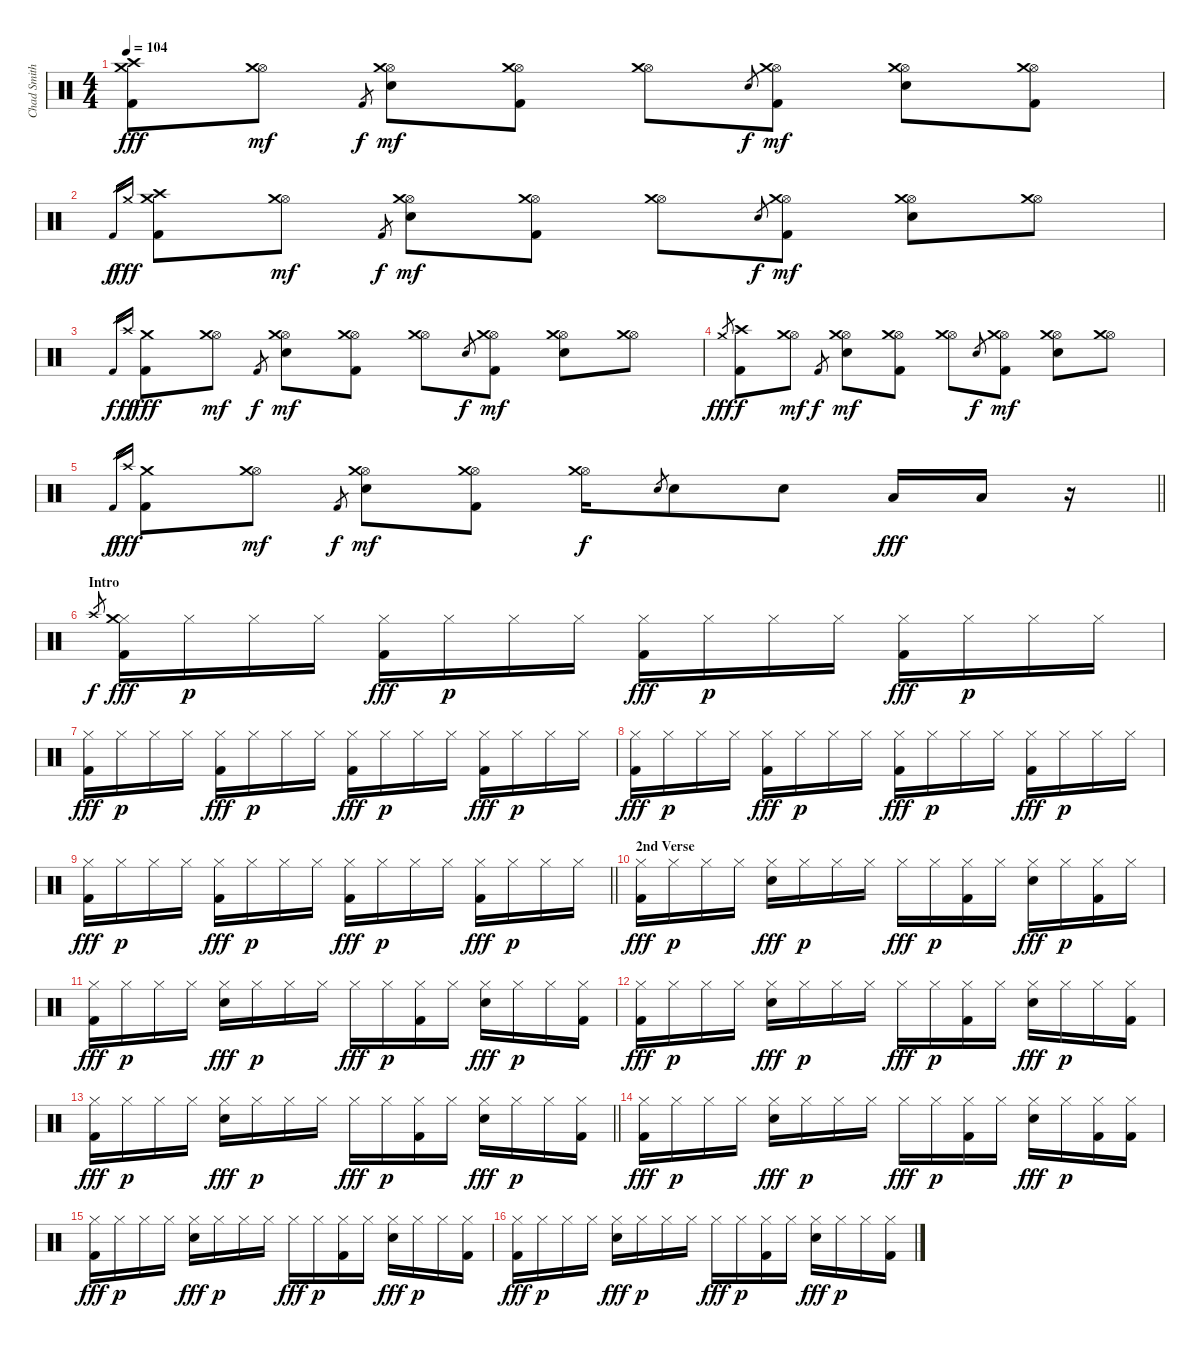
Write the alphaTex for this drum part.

\track ("Chad Smith" "Chad Smith") {instrument percussion}
\staff {score}
\articulation defaults
\ts (4 4)
\tempo 104
\clef neutral
\ks c
("Kick (hit) 2" "Crash medium (hit)" "Crash high (hit)").8{dy fff} ("Hi-Hat (open)" "Crash medium (hit)").8{dy mf} "Kick (hit) 2".8{gr dy f} ("Hi-Hat (open)" "Electric Snare (hit)" "Crash medium (hit)").8{dy mf} ("Hi-Hat (open)" "Kick (hit) 2" "Crash medium (hit)").8 ("Hi-Hat (open)" "Crash medium (hit)").8 "Electric Snare (hit)".8{gr dy f} ("Hi-Hat (open)" "Kick (hit) 2" "Crash medium (hit)").8{dy mf} ("Hi-Hat (open)" "Electric Snare (hit)" "Crash medium (hit)").8 ("Hi-Hat (open)" "Kick (hit) 2" "Crash medium (hit)").8 |
"Kick (hit) 2".16{gr dy f} "Crash medium (hit)".16{gr dy fff} ("Kick (hit) 2" "Crash medium (hit)" "Crash high (hit)").8 ("Hi-Hat (open)" "Crash medium (hit)").8{dy mf} "Kick (hit) 2".8{gr dy f} ("Hi-Hat (open)" "Electric Snare (hit)" "Crash medium (hit)").8{dy mf} ("Hi-Hat (open)" "Kick (hit) 2" "Crash medium (hit)").8 ("Hi-Hat (open)" "Crash medium (hit)").8 "Electric Snare (hit)".8{gr dy f} ("Hi-Hat (open)" "Kick (hit) 2" "Crash medium (hit)").8{dy mf} ("Hi-Hat (open)" "Electric Snare (hit)" "Crash medium (hit)").8 ("Hi-Hat (open)" "Crash medium (hit)").8 |
"Kick (hit) 2".16{gr dy f} "Crash high (hit)".16{gr dy ff} ("Kick (hit) 2" "Crash medium (hit)").8{dy fff} ("Hi-Hat (open)" "Crash medium (hit)").8{dy mf} "Kick (hit) 2".8{gr dy f} ("Hi-Hat (open)" "Electric Snare (hit)" "Crash medium (hit)").8{dy mf} ("Hi-Hat (open)" "Kick (hit) 2" "Crash medium (hit)").8 ("Hi-Hat (open)" "Crash medium (hit)").8 "Electric Snare (hit)".8{gr dy f} ("Hi-Hat (open)" "Kick (hit) 2" "Crash medium (hit)").8{dy mf} ("Hi-Hat (open)" "Electric Snare (hit)" "Crash medium (hit)").8 ("Hi-Hat (open)" "Crash medium (hit)").8 |
"Crash medium (hit)".8{gr dy fff} ("Kick (hit) 2" "Crash high (hit)").8{dy f} ("Hi-Hat (open)" "Crash medium (hit)").8{dy mf} "Kick (hit) 2".8{gr dy f} ("Hi-Hat (open)" "Electric Snare (hit)" "Crash medium (hit)").8{dy mf} ("Hi-Hat (open)" "Kick (hit) 2" "Crash medium (hit)").8 ("Hi-Hat (open)" "Crash medium (hit)").8 "Electric Snare (hit)".8{gr dy f} ("Hi-Hat (open)" "Kick (hit) 2" "Crash medium (hit)").8{dy mf} ("Hi-Hat (open)" "Electric Snare (hit)" "Crash medium (hit)").8 ("Hi-Hat (open)" "Crash medium (hit)").8 |
\barLineRight lightlight "Kick (hit) 2".16{gr dy f} "Crash high (hit)".16{gr dy fff}
("Kick (hit) 2" "Crash medium (hit)").8 ("Hi-Hat (open)" "Crash medium (hit)").8{dy mf} "Kick (hit) 2".8{gr dy f} ("Hi-Hat (open)" "Electric Snare (hit)" "Crash medium (hit)").8{dy mf} ("Hi-Hat (open)" "Kick (hit) 2" "Crash medium (hit)").8 ("Hi-Hat (open)" "Crash medium (hit)").16{dy f} "Electric Snare (hit)".8{gr} "Electric Snare (hit)".8 "Electric Snare (hit)".8 "Low Tom (hit)".16{dy fff} "Low Tom (hit)".16 r.16 |
\section ("" "Intro")
"Crash high (hit)".8{gr dy f} ("Hi-Hat (closed)" "Kick (hit) 2" "Crash medium (hit)").16{dy fff} "Hi-Hat (closed)".16{dy p} "Hi-Hat (closed)".16 "Hi-Hat (closed)".16 ("Hi-Hat (closed)" "Kick (hit) 2").16{dy fff} "Hi-Hat (closed)".16{dy p} "Hi-Hat (closed)".16 "Hi-Hat (closed)".16 ("Hi-Hat (closed)" "Kick (hit) 2").16{dy fff} "Hi-Hat (closed)".16{dy p} "Hi-Hat (closed)".16 "Hi-Hat (closed)".16 ("Hi-Hat (closed)" "Kick (hit) 2").16{dy fff} "Hi-Hat (closed)".16{dy p} "Hi-Hat (closed)".16 "Hi-Hat (closed)".16 |
("Hi-Hat (closed)" "Kick (hit) 2").16{dy fff} "Hi-Hat (closed)".16{dy p} "Hi-Hat (closed)".16 "Hi-Hat (closed)".16 ("Hi-Hat (closed)" "Kick (hit) 2").16{dy fff} "Hi-Hat (closed)".16{dy p} "Hi-Hat (closed)".16 "Hi-Hat (closed)".16 ("Hi-Hat (closed)" "Kick (hit) 2").16{dy fff} "Hi-Hat (closed)".16{dy p} "Hi-Hat (closed)".16 "Hi-Hat (closed)".16 ("Hi-Hat (closed)" "Kick (hit) 2").16{dy fff} "Hi-Hat (closed)".16{dy p} "Hi-Hat (closed)".16 "Hi-Hat (closed)".16 |
("Hi-Hat (closed)" "Kick (hit) 2").16{dy fff} "Hi-Hat (closed)".16{dy p} "Hi-Hat (closed)".16 "Hi-Hat (closed)".16 ("Hi-Hat (closed)" "Kick (hit) 2").16{dy fff} "Hi-Hat (closed)".16{dy p} "Hi-Hat (closed)".16 "Hi-Hat (closed)".16 ("Hi-Hat (closed)" "Kick (hit) 2").16{dy fff} "Hi-Hat (closed)".16{dy p} "Hi-Hat (closed)".16 "Hi-Hat (closed)".16 ("Hi-Hat (closed)" "Kick (hit) 2").16{dy fff} "Hi-Hat (closed)".16{dy p} "Hi-Hat (closed)".16 "Hi-Hat (closed)".16 |
\barLineRight lightlight
("Hi-Hat (closed)" "Kick (hit) 2").16{dy fff} "Hi-Hat (closed)".16{dy p} "Hi-Hat (closed)".16 "Hi-Hat (closed)".16 ("Hi-Hat (closed)" "Kick (hit) 2").16{dy fff} "Hi-Hat (closed)".16{dy p} "Hi-Hat (closed)".16 "Hi-Hat (closed)".16 ("Hi-Hat (closed)" "Kick (hit) 2").16{dy fff} "Hi-Hat (closed)".16{dy p} "Hi-Hat (closed)".16 "Hi-Hat (closed)".16 ("Hi-Hat (closed)" "Kick (hit) 2").16{dy fff} "Hi-Hat (closed)".16{dy p} "Hi-Hat (closed)".16 "Hi-Hat (closed)".16 |
\section ("" "2nd Verse")
("Hi-Hat (closed)" "Kick (hit) 2").16{dy fff} "Hi-Hat (closed)".16{dy p} "Hi-Hat (closed)".16 "Hi-Hat (closed)".16 ("Hi-Hat (closed)" "Electric Snare (hit)").16{dy fff} "Hi-Hat (closed)".16{dy p} "Hi-Hat (closed)".16 "Hi-Hat (closed)".16 "Hi-Hat (closed)".16{dy fff} "Hi-Hat (closed)".16{dy p} ("Hi-Hat (closed)" "Kick (hit) 2").16 "Hi-Hat (closed)".16 ("Hi-Hat (closed)" "Electric Snare (hit)").16{dy fff} "Hi-Hat (closed)".16{dy p} ("Hi-Hat (closed)" "Kick (hit) 2").16 "Hi-Hat (closed)".16 |
("Hi-Hat (closed)" "Kick (hit) 2").16{dy fff} "Hi-Hat (closed)".16{dy p} "Hi-Hat (closed)".16 "Hi-Hat (closed)".16 ("Hi-Hat (closed)" "Electric Snare (hit)").16{dy fff} "Hi-Hat (closed)".16{dy p} "Hi-Hat (closed)".16 "Hi-Hat (closed)".16 "Hi-Hat (closed)".16{dy fff} "Hi-Hat (closed)".16{dy p} ("Hi-Hat (closed)" "Kick (hit) 2").16 "Hi-Hat (closed)".16 ("Hi-Hat (closed)" "Electric Snare (hit)").16{dy fff} "Hi-Hat (closed)".16{dy p} "Hi-Hat (closed)".16 ("Hi-Hat (closed)" "Kick (hit) 2").16 |
("Hi-Hat (closed)" "Kick (hit) 2").16{dy fff} "Hi-Hat (closed)".16{dy p} "Hi-Hat (closed)".16 "Hi-Hat (closed)".16 ("Hi-Hat (closed)" "Electric Snare (hit)").16{dy fff} "Hi-Hat (closed)".16{dy p} "Hi-Hat (closed)".16 "Hi-Hat (closed)".16 "Hi-Hat (closed)".16{dy fff} "Hi-Hat (closed)".16{dy p} ("Hi-Hat (closed)" "Kick (hit) 2").16 "Hi-Hat (closed)".16 ("Hi-Hat (closed)" "Electric Snare (hit)").16{dy fff} "Hi-Hat (closed)".16{dy p} "Hi-Hat (closed)".16 ("Hi-Hat (closed)" "Kick (hit) 2").16 |
\barLineRight lightlight
("Hi-Hat (closed)" "Kick (hit) 2").16{dy fff} "Hi-Hat (closed)".16{dy p} "Hi-Hat (closed)".16 "Hi-Hat (closed)".16 ("Hi-Hat (closed)" "Electric Snare (hit)").16{dy fff} "Hi-Hat (closed)".16{dy p} "Hi-Hat (closed)".16 "Hi-Hat (closed)".16 "Hi-Hat (closed)".16{dy fff} "Hi-Hat (closed)".16{dy p} ("Hi-Hat (closed)" "Kick (hit) 2").16 "Hi-Hat (closed)".16 ("Hi-Hat (closed)" "Electric Snare (hit)").16{dy fff} "Hi-Hat (closed)".16{dy p} "Hi-Hat (closed)".16 ("Hi-Hat (closed)" "Kick (hit) 2").16 |
("Hi-Hat (closed)" "Kick (hit) 2").16{dy fff} "Hi-Hat (closed)".16{dy p} "Hi-Hat (closed)".16 "Hi-Hat (closed)".16 ("Hi-Hat (closed)" "Electric Snare (hit)").16{dy fff} "Hi-Hat (closed)".16{dy p} "Hi-Hat (closed)".16 "Hi-Hat (closed)".16 "Hi-Hat (closed)".16{dy fff} "Hi-Hat (closed)".16{dy p} ("Hi-Hat (closed)" "Kick (hit) 2").16 "Hi-Hat (closed)".16 ("Hi-Hat (closed)" "Electric Snare (hit)").16{dy fff} "Hi-Hat (closed)".16{dy p} ("Hi-Hat (closed)" "Kick (hit) 2").16 ("Hi-Hat (closed)" "Kick (hit) 2").16 |
("Hi-Hat (closed)" "Kick (hit) 2").16{dy fff} "Hi-Hat (closed)".16{dy p} "Hi-Hat (closed)".16 "Hi-Hat (closed)".16 ("Hi-Hat (closed)" "Electric Snare (hit)").16{dy fff} "Hi-Hat (closed)".16{dy p} "Hi-Hat (closed)".16 "Hi-Hat (closed)".16 "Hi-Hat (closed)".16{dy fff} "Hi-Hat (closed)".16{dy p} ("Hi-Hat (closed)" "Kick (hit) 2").16 "Hi-Hat (closed)".16 ("Hi-Hat (closed)" "Electric Snare (hit)").16{dy fff} "Hi-Hat (closed)".16{dy p} "Hi-Hat (closed)".16 ("Hi-Hat (closed)" "Kick (hit) 2").16 |
("Hi-Hat (closed)" "Kick (hit) 2").16{dy fff} "Hi-Hat (closed)".16{dy p} "Hi-Hat (closed)".16 "Hi-Hat (closed)".16 ("Hi-Hat (closed)" "Electric Snare (hit)").16{dy fff} "Hi-Hat (closed)".16{dy p} "Hi-Hat (closed)".16 "Hi-Hat (closed)".16 "Hi-Hat (closed)".16{dy fff} "Hi-Hat (closed)".16{dy p} ("Hi-Hat (closed)" "Kick (hit) 2").16 "Hi-Hat (closed)".16 ("Hi-Hat (closed)" "Electric Snare (hit)").16{dy fff} "Hi-Hat (closed)".16{dy p} "Hi-Hat (closed)".16 ("Hi-Hat (closed)" "Kick (hit) 2").16
